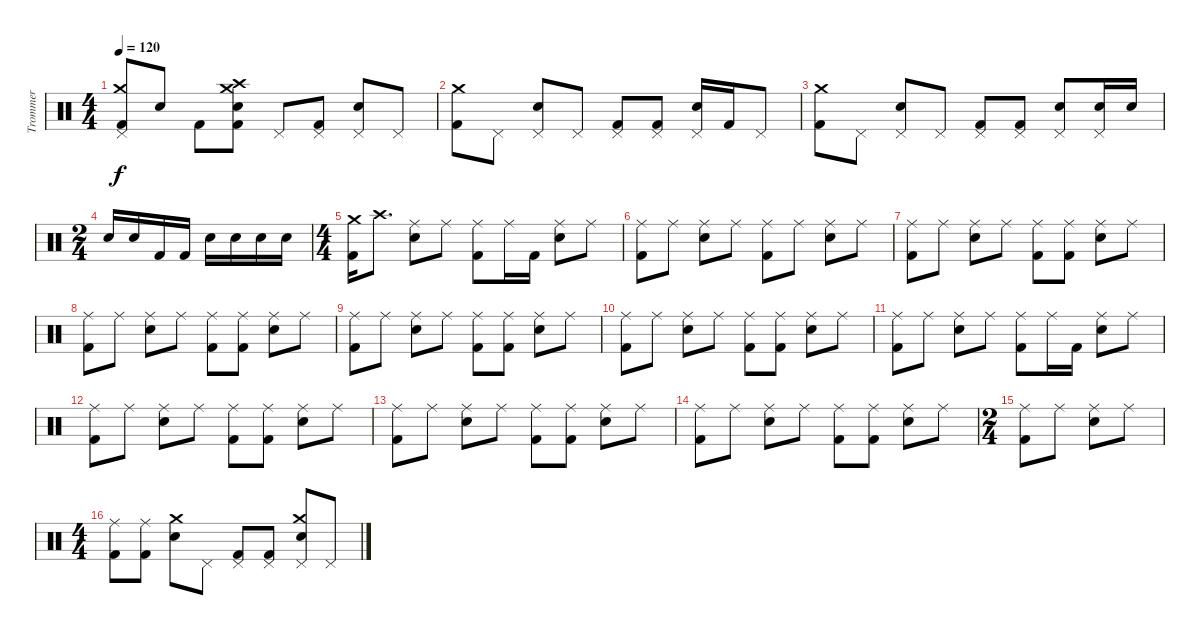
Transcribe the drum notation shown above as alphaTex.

\track ("Trommer" "Trommer") {instrument percussion}
\staff {score}
\articulation defaults
\ts (4 4)
\tempo 120
\clef neutral
\ks c
("Pedal Hi-Hat (hit)" "Crash medium (hit)" "Kick (hit) 2").8{dy f} "Snare (hit) 2".8 "Kick (hit) 2".8 ("Crash medium (hit)" "Kick (hit) 2" "Snare (hit) 2" "Crash high (hit)").8 "Pedal Hi-Hat (hit)".8 ("Pedal Hi-Hat (hit)" "Kick (hit) 2").8 ("Pedal Hi-Hat (hit)" "Snare (hit) 2").8 "Pedal Hi-Hat (hit)".8 |
("Kick (hit) 2" "Crash medium (hit)").8 "Pedal Hi-Hat (hit)".8 ("Pedal Hi-Hat (hit)" "Snare (hit) 2").8 "Pedal Hi-Hat (hit)".8 ("Pedal Hi-Hat (hit)" "Kick (hit) 2").8 ("Pedal Hi-Hat (hit)" "Kick (hit) 2").8 ("Pedal Hi-Hat (hit)" "Snare (hit) 2").16 "Kick (hit) 2".16 "Pedal Hi-Hat (hit)".8 |
("Crash medium (hit)" "Kick (hit) 2").8 "Pedal Hi-Hat (hit)".8 ("Pedal Hi-Hat (hit)" "Snare (hit) 2").8 "Pedal Hi-Hat (hit)".8 ("Pedal Hi-Hat (hit)" "Kick (hit) 2").8 ("Pedal Hi-Hat (hit)" "Kick (hit) 2").8 ("Pedal Hi-Hat (hit)" "Snare (hit) 2").8 ("Snare (hit) 2" "Pedal Hi-Hat (hit)").16 "Snare (hit) 2".16 |
\ts (2 4)
"Snare (hit) 2".16 "Snare (hit) 2".16 "Kick (hit) 2".16 "Kick (hit) 2".16 "Snare (hit) 2".16 "Snare (hit) 2".16 "Snare (hit) 2".16 "Snare (hit) 2".16 |
\ts (4 4)
("Crash medium (hit)" "Kick (hit) 2").16 "Crash high (hit)".8{d} ("Ride (middle)" "Snare (hit) 2").8 "Ride (middle)".8 ("Ride (middle)" "Kick (hit) 2").8 "Ride (middle)".16 "Kick (hit) 2".16 ("Ride (middle)" "Snare (hit) 2").8 "Ride (middle)".8 |
("Ride (middle)" "Kick (hit) 2").8 "Ride (middle)".8 ("Ride (middle)" "Snare (hit) 2").8 "Ride (middle)".8 ("Ride (middle)" "Kick (hit) 2").8 "Ride (middle)".8 ("Ride (middle)" "Snare (hit) 2").8 "Ride (middle)".8 |
("Ride (middle)" "Kick (hit) 2").8 "Ride (middle)".8 ("Ride (middle)" "Snare (hit) 2").8 "Ride (middle)".8 ("Ride (middle)" "Kick (hit) 2").8 ("Ride (middle)" "Kick (hit) 2").8 ("Ride (middle)" "Snare (hit) 2").8 "Ride (middle)".8 |
("Ride (middle)" "Kick (hit) 2").8 "Ride (middle)".8 ("Ride (middle)" "Snare (hit) 2").8 "Ride (middle)".8 ("Ride (middle)" "Kick (hit) 2").8 ("Ride (middle)" "Kick (hit) 2").8 ("Ride (middle)" "Snare (hit) 2").8 "Ride (middle)".8 |
("Ride (middle)" "Kick (hit) 2").8 "Ride (middle)".8 ("Ride (middle)" "Snare (hit) 2").8 "Ride (middle)".8 ("Ride (middle)" "Kick (hit) 2").8 ("Ride (middle)" "Kick (hit) 2").8 ("Ride (middle)" "Snare (hit) 2").8 "Ride (middle)".8 |
("Ride (middle)" "Kick (hit) 2").8 "Ride (middle)".8 ("Ride (middle)" "Snare (hit) 2").8 "Ride (middle)".8 ("Ride (middle)" "Kick (hit) 2").8 ("Ride (middle)" "Kick (hit) 2").8 ("Ride (middle)" "Snare (hit) 2").8 "Ride (middle)".8 |
("Ride (middle)" "Kick (hit) 2").8 "Ride (middle)".8 ("Ride (middle)" "Snare (hit) 2").8 "Ride (middle)".8 ("Ride (middle)" "Kick (hit) 2").8 "Ride (middle)".16 "Kick (hit) 2".16 ("Ride (middle)" "Snare (hit) 2").8 "Ride (middle)".8 |
("Ride (middle)" "Kick (hit) 2").8 "Ride (middle)".8 ("Ride (middle)" "Snare (hit) 2").8 "Ride (middle)".8 ("Ride (middle)" "Kick (hit) 2").8 ("Ride (middle)" "Kick (hit) 2").8 ("Ride (middle)" "Snare (hit) 2").8 "Ride (middle)".8 |
("Ride (middle)" "Kick (hit) 2").8 "Ride (middle)".8 ("Ride (middle)" "Snare (hit) 2").8 "Ride (middle)".8 ("Ride (middle)" "Kick (hit) 2").8 ("Ride (middle)" "Kick (hit) 2").8 ("Ride (middle)" "Snare (hit) 2").8 "Ride (middle)".8 |
("Ride (middle)" "Kick (hit) 2").8 "Ride (middle)".8 ("Ride (middle)" "Snare (hit) 2").8 "Ride (middle)".8 ("Ride (middle)" "Kick (hit) 2").8 ("Ride (middle)" "Kick (hit) 2").8 ("Ride (middle)" "Snare (hit) 2").8 "Ride (middle)".8 |
\ts (2 4)
("Ride (middle)" "Kick (hit) 2").8 "Ride (middle)".8 ("Ride (middle)" "Snare (hit) 2").8 "Ride (middle)".8 |
\ts (4 4)
("Ride (middle)" "Kick (hit) 2").8 ("Ride (middle)" "Kick (hit) 2").8 ("Crash medium (hit)" "Snare (hit) 2").8 "Pedal Hi-Hat (hit)".8 ("Pedal Hi-Hat (hit)" "Kick (hit) 2").8 ("Pedal Hi-Hat (hit)" "Kick (hit) 2").8 ("Pedal Hi-Hat (hit)" "Crash medium (hit)" "Snare (hit) 2").8 "Pedal Hi-Hat (hit)".8
